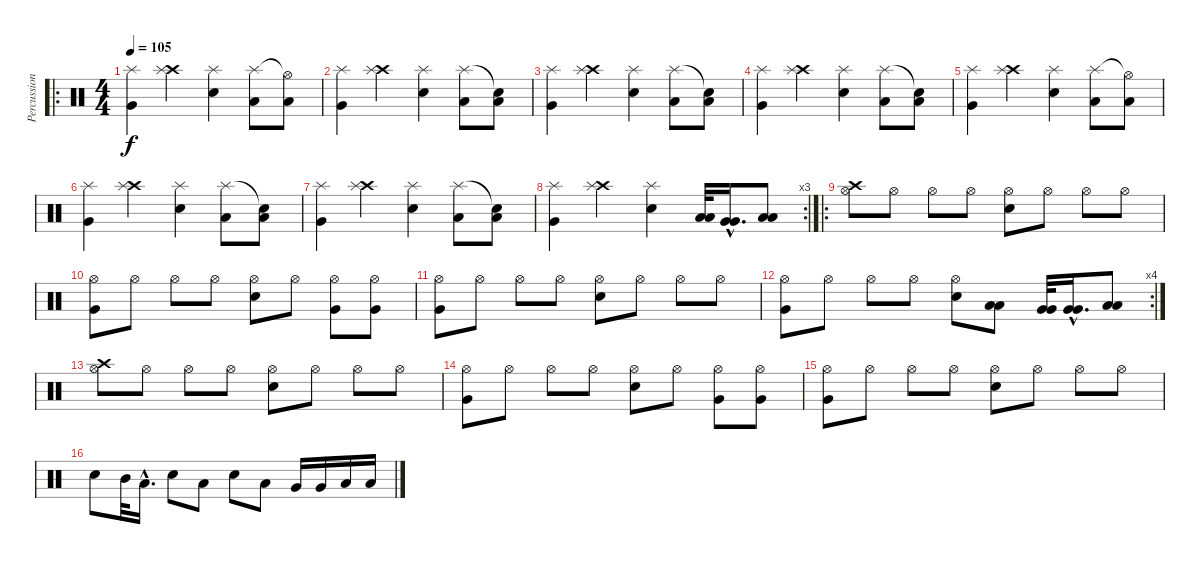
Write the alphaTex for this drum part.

\track ("Percussions" "Percussion") {instrument percussion}
\staff {score}
\articulation defaults
\ro
\ts (4 4)
\tempo 105
\clef neutral
\ks c
("Very Low Tom (hit)" "Splash (hit)").4{dy f} ("Crash high (hit)" "Splash (hit)").4 ("Electric Snare (hit)" "Splash (hit)").4 ("Low Tom (hit)" "Splash (hit)").8 ("Low Tom (hit)" "Hi-Hat (open)"{t}).8 |
("Very Low Tom (hit)" "Splash (hit)").4 ("Crash high (hit)" "Splash (hit)").4 ("Electric Snare (hit)" "Splash (hit)").4 ("Low Tom (hit)" "Splash (hit)").8 ("Low Tom (hit)" "Snare (hit)"{t}).8 |
("Very Low Tom (hit)" "Splash (hit)").4 ("Crash high (hit)" "Splash (hit)").4 ("Electric Snare (hit)" "Splash (hit)").4 ("Low Tom (hit)" "Splash (hit)").8 ("Low Tom (hit)" "Snare (hit)"{t}).8 |
("Very Low Tom (hit)" "Splash (hit)").4 ("Crash high (hit)" "Splash (hit)").4 ("Electric Snare (hit)" "Splash (hit)").4 ("Low Tom (hit)" "Splash (hit)").8 ("Low Tom (hit)" "Snare (hit)"{t}).8 |
("Very Low Tom (hit)" "Splash (hit)").4 ("Crash high (hit)" "Splash (hit)").4 ("Electric Snare (hit)" "Splash (hit)").4 ("Low Tom (hit)" "Splash (hit)").8 ("Low Tom (hit)" "Hi-Hat (open)"{t}).8 |
("Very Low Tom (hit)" "Splash (hit)").4 ("Crash high (hit)" "Splash (hit)").4 ("Electric Snare (hit)" "Splash (hit)").4 ("Low Tom (hit)" "Splash (hit)").8 ("Low Tom (hit)" "Snare (hit)"{t}).8 |
("Very Low Tom (hit)" "Splash (hit)").4 ("Crash high (hit)" "Splash (hit)").4 ("Electric Snare (hit)" "Splash (hit)").4 ("Low Tom (hit)" "Splash (hit)").8 ("Low Tom (hit)" "Snare (hit)"{t}).8 |
\rc 3
("Very Low Tom (hit)" "Splash (hit)").4 ("Crash high (hit)" "Splash (hit)").4 ("Electric Snare (hit)" "Splash (hit)").4 ("Low Tom (hit)" "Low Tom (hit)").32 ("Very Low Tom (hit)"{hac} "Very Low Tom (hit)"{hac}).16{d} ("Low Floor Tom (hit)" "Low Floor Tom (hit)").8 |
\ro
("Hi-Hat (open)" "Crash high (hit)").8 "Hi-Hat (open)".8 "Hi-Hat (open)".8 "Hi-Hat (open)".8 ("Hi-Hat (open)" "Electric Snare (hit)").8 "Hi-Hat (open)".8 "Hi-Hat (open)".8 "Hi-Hat (open)".8 |
("Hi-Hat (open)" "Very Low Tom (hit)").8 "Hi-Hat (open)".8 "Hi-Hat (open)".8 "Hi-Hat (open)".8 ("Hi-Hat (open)" "Electric Snare (hit)").8 "Hi-Hat (open)".8 ("Hi-Hat (open)" "Very Low Tom (hit)").8 ("Hi-Hat (open)" "Very Low Tom (hit)").8 |
("Hi-Hat (open)" "Very Low Tom (hit)").8 "Hi-Hat (open)".8 "Hi-Hat (open)".8 "Hi-Hat (open)".8 ("Hi-Hat (open)" "Electric Snare (hit)").8 "Hi-Hat (open)".8 "Hi-Hat (open)".8 "Hi-Hat (open)".8 |
\rc 4
("Hi-Hat (open)" "Very Low Tom (hit)").8 "Hi-Hat (open)".8 "Hi-Hat (open)".8 "Hi-Hat (open)".8 ("Hi-Hat (open)" "Electric Snare (hit)").8 ("Low Tom (hit)" "Low Tom (hit)").8 ("Very Low Tom (hit)" "Very Low Tom (hit)").32 ("Very Low Tom (hit)"{hac} "Very Low Tom (hit)"{hac}).16{d} ("Low Floor Tom (hit)" "Low Floor Tom (hit)").8 |
("Hi-Hat (open)" "Crash high (hit)").8 "Hi-Hat (open)".8 "Hi-Hat (open)".8 "Hi-Hat (open)".8 ("Hi-Hat (open)" "Electric Snare (hit)").8 "Hi-Hat (open)".8 "Hi-Hat (open)".8 "Hi-Hat (open)".8 |
("Hi-Hat (open)" "Very Low Tom (hit)").8 "Hi-Hat (open)".8 "Hi-Hat (open)".8 "Hi-Hat (open)".8 ("Hi-Hat (open)" "Electric Snare (hit)").8 "Hi-Hat (open)".8 ("Hi-Hat (open)" "Very Low Tom (hit)").8 ("Hi-Hat (open)" "Very Low Tom (hit)").8 |
("Hi-Hat (open)" "Very Low Tom (hit)").8 "Hi-Hat (open)".8 "Hi-Hat (open)".8 "Hi-Hat (open)".8 ("Hi-Hat (open)" "Electric Snare (hit)").8 "Hi-Hat (open)".8 "Hi-Hat (open)".8 "Hi-Hat (open)".8 |
"Electric Snare (hit)".8 "Mid Tom (hit)".32 "Low Tom (hit)"{hac}.16{d} "Electric Snare (hit)".8 "Low Tom (hit)".8 "Electric Snare (hit)".8 "Low Tom (hit)".8 "Very Low Tom (hit)".16 "Very Low Tom (hit)".16 "Low Floor Tom (hit)".16 "Low Floor Tom (hit)".16
